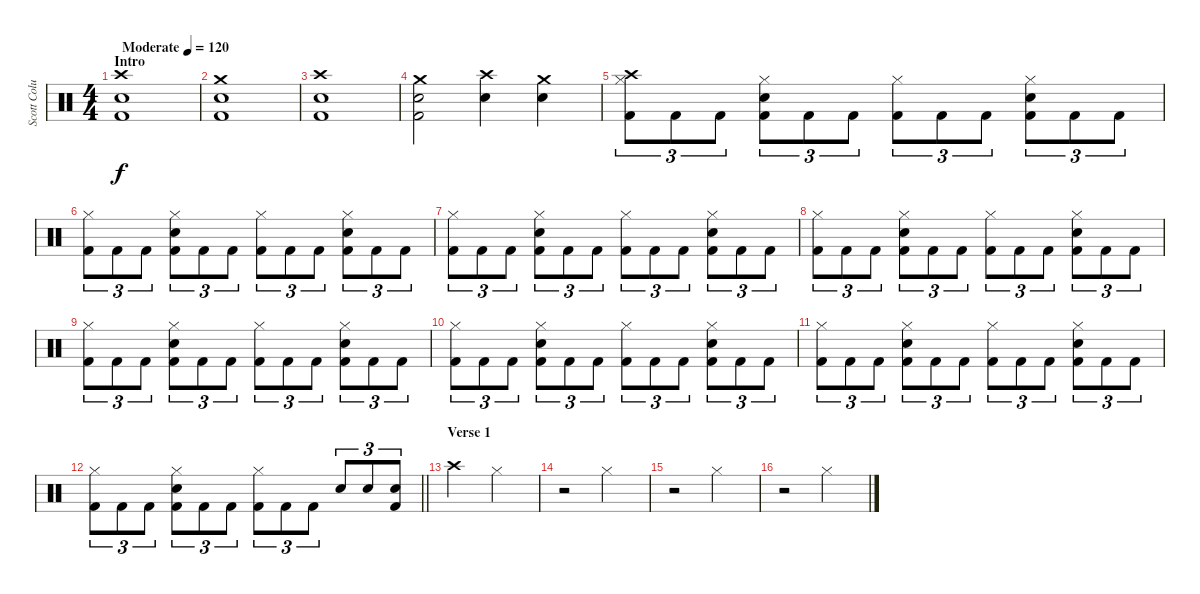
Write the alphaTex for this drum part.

\track ("Scott Columbus" "Scott Colu") {instrument percussion}
\staff {score}
\articulation defaults
\ts (4 4)
\section ("" "Intro")
\tempo (120 "Moderate")
\clef neutral
\ks c
("Crash high (hit)" "Snare (hit) 2" "Kick (hit) 2").1{dy f} |
("Crash medium (hit)" "Snare (hit) 2" "Kick (hit) 2").1 |
("Crash high (hit)" "Snare (hit) 2" "Kick (hit) 2").1 |
("Crash medium (hit)" "Snare (hit) 2" "Kick (hit) 2").2 ("Crash high (hit)" "Snare (hit) 2").4 ("Crash medium (hit)" "Snare (hit) 2").4 |
("Crash high (hit)" "Hi-Hat (closed)" "Kick (hit) 2").8{tu (3 2)} "Kick (hit) 2".8{tu (3 2)} "Kick (hit) 2".8{tu (3 2)} ("Hi-Hat (closed)" "Snare (hit) 2" "Kick (hit) 2").8{tu (3 2)} "Kick (hit) 2".8{tu (3 2)} "Kick (hit) 2".8{tu (3 2)} ("Hi-Hat (closed)" "Kick (hit) 2").8{tu (3 2)} "Kick (hit) 2".8{tu (3 2)} "Kick (hit) 2".8{tu (3 2)} ("Hi-Hat (closed)" "Snare (hit) 2" "Kick (hit) 2").8{tu (3 2)} "Kick (hit) 2".8{tu (3 2)} "Kick (hit) 2".8{tu (3 2)} |
("Hi-Hat (closed)" "Kick (hit) 2").8{tu (3 2)} "Kick (hit) 2".8{tu (3 2)} "Kick (hit) 2".8{tu (3 2)} ("Hi-Hat (closed)" "Snare (hit) 2" "Kick (hit) 2").8{tu (3 2)} "Kick (hit) 2".8{tu (3 2)} "Kick (hit) 2".8{tu (3 2)} ("Hi-Hat (closed)" "Kick (hit) 2").8{tu (3 2)} "Kick (hit) 2".8{tu (3 2)} "Kick (hit) 2".8{tu (3 2)} ("Hi-Hat (closed)" "Snare (hit) 2" "Kick (hit) 2").8{tu (3 2)} "Kick (hit) 2".8{tu (3 2)} "Kick (hit) 2".8{tu (3 2)} |
("Hi-Hat (closed)" "Kick (hit) 2").8{tu (3 2)} "Kick (hit) 2".8{tu (3 2)} "Kick (hit) 2".8{tu (3 2)} ("Hi-Hat (closed)" "Snare (hit) 2" "Kick (hit) 2").8{tu (3 2)} "Kick (hit) 2".8{tu (3 2)} "Kick (hit) 2".8{tu (3 2)} ("Hi-Hat (closed)" "Kick (hit) 2").8{tu (3 2)} "Kick (hit) 2".8{tu (3 2)} "Kick (hit) 2".8{tu (3 2)} ("Hi-Hat (closed)" "Snare (hit) 2" "Kick (hit) 2").8{tu (3 2)} "Kick (hit) 2".8{tu (3 2)} "Kick (hit) 2".8{tu (3 2)} |
("Hi-Hat (closed)" "Kick (hit) 2").8{tu (3 2)} "Kick (hit) 2".8{tu (3 2)} "Kick (hit) 2".8{tu (3 2)} ("Hi-Hat (closed)" "Snare (hit) 2" "Kick (hit) 2").8{tu (3 2)} "Kick (hit) 2".8{tu (3 2)} "Kick (hit) 2".8{tu (3 2)} ("Hi-Hat (closed)" "Kick (hit) 2").8{tu (3 2)} "Kick (hit) 2".8{tu (3 2)} "Kick (hit) 2".8{tu (3 2)} ("Hi-Hat (closed)" "Snare (hit) 2" "Kick (hit) 2").8{tu (3 2)} "Kick (hit) 2".8{tu (3 2)} "Kick (hit) 2".8{tu (3 2)} |
("Hi-Hat (closed)" "Kick (hit) 2").8{tu (3 2)} "Kick (hit) 2".8{tu (3 2)} "Kick (hit) 2".8{tu (3 2)} ("Hi-Hat (closed)" "Snare (hit) 2" "Kick (hit) 2").8{tu (3 2)} "Kick (hit) 2".8{tu (3 2)} "Kick (hit) 2".8{tu (3 2)} ("Hi-Hat (closed)" "Kick (hit) 2").8{tu (3 2)} "Kick (hit) 2".8{tu (3 2)} "Kick (hit) 2".8{tu (3 2)} ("Hi-Hat (closed)" "Snare (hit) 2" "Kick (hit) 2").8{tu (3 2)} "Kick (hit) 2".8{tu (3 2)} "Kick (hit) 2".8{tu (3 2)} |
("Hi-Hat (closed)" "Kick (hit) 2").8{tu (3 2)} "Kick (hit) 2".8{tu (3 2)} "Kick (hit) 2".8{tu (3 2)} ("Hi-Hat (closed)" "Snare (hit) 2" "Kick (hit) 2").8{tu (3 2)} "Kick (hit) 2".8{tu (3 2)} "Kick (hit) 2".8{tu (3 2)} ("Hi-Hat (closed)" "Kick (hit) 2").8{tu (3 2)} "Kick (hit) 2".8{tu (3 2)} "Kick (hit) 2".8{tu (3 2)} ("Hi-Hat (closed)" "Snare (hit) 2" "Kick (hit) 2").8{tu (3 2)} "Kick (hit) 2".8{tu (3 2)} "Kick (hit) 2".8{tu (3 2)} |
("Hi-Hat (closed)" "Kick (hit) 2").8{tu (3 2)} "Kick (hit) 2".8{tu (3 2)} "Kick (hit) 2".8{tu (3 2)} ("Hi-Hat (closed)" "Snare (hit) 2" "Kick (hit) 2").8{tu (3 2)} "Kick (hit) 2".8{tu (3 2)} "Kick (hit) 2".8{tu (3 2)} ("Hi-Hat (closed)" "Kick (hit) 2").8{tu (3 2)} "Kick (hit) 2".8{tu (3 2)} "Kick (hit) 2".8{tu (3 2)} ("Hi-Hat (closed)" "Snare (hit) 2" "Kick (hit) 2").8{tu (3 2)} "Kick (hit) 2".8{tu (3 2)} "Kick (hit) 2".8{tu (3 2)} |
\barLineRight lightlight
("Hi-Hat (closed)" "Kick (hit) 2").8{tu (3 2)} "Kick (hit) 2".8{tu (3 2)} "Kick (hit) 2".8{tu (3 2)} ("Hi-Hat (closed)" "Snare (hit) 2" "Kick (hit) 2").8{tu (3 2)} "Kick (hit) 2".8{tu (3 2)} "Kick (hit) 2".8{tu (3 2)} ("Hi-Hat (closed)" "Kick (hit) 2").8{tu (3 2)} "Kick (hit) 2".8{tu (3 2)} "Kick (hit) 2".8{tu (3 2)} "Snare (hit) 2".8{tu (3 2)} "Snare (hit) 2".8{tu (3 2)} ("Snare (hit) 2" "Kick (hit) 2").8{tu (3 2)} |
\section ("" "Verse 1")
"Crash high (hit)".2 "Hi-Hat (closed)".2 |
r.2 "Hi-Hat (closed)".2 |
r.2 "Hi-Hat (closed)".2 |
r.2 "Hi-Hat (closed)".2
